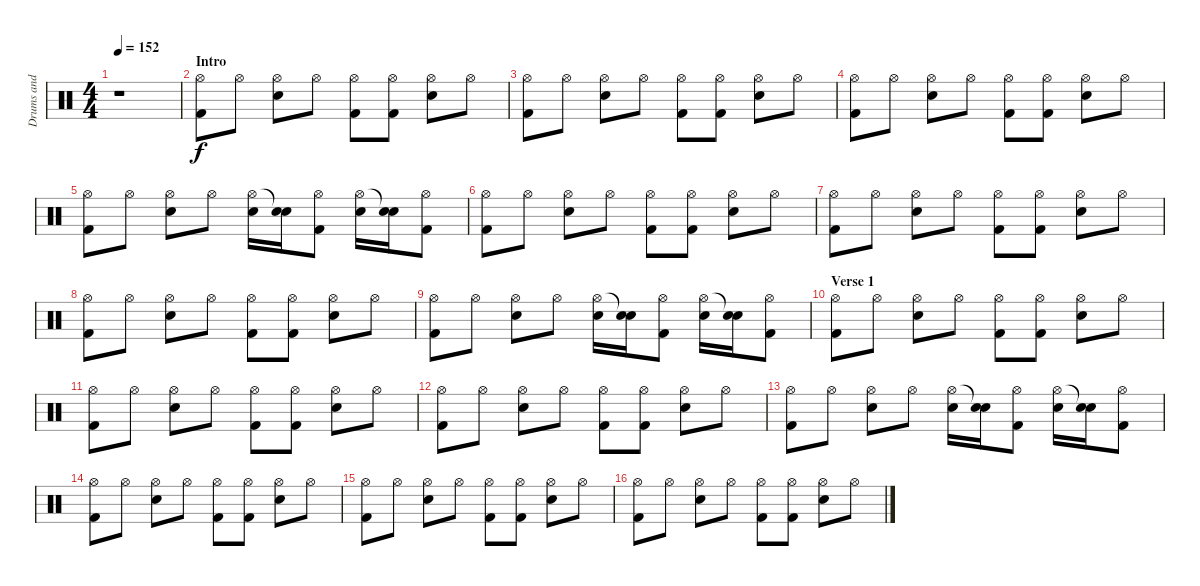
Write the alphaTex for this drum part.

\track ("Drums and Percussion" "Drums and ") {instrument percussion}
\staff {score}
\articulation defaults
\ts (4 4)
\tempo 152
\clef neutral
\ks c
r.1{dy f} |
\section ("" "Intro")
("Hi-Hat (open)" "Kick (hit) 2").8 "Hi-Hat (open)".8 ("Hi-Hat (open)" "Electric Snare (hit)").8 "Hi-Hat (open)".8 ("Hi-Hat (open)" "Kick (hit) 2").8 ("Hi-Hat (open)" "Kick (hit) 2").8 ("Hi-Hat (open)" "Electric Snare (hit)").8 "Hi-Hat (open)".8 |
("Hi-Hat (open)" "Kick (hit) 2").8 "Hi-Hat (open)".8 ("Hi-Hat (open)" "Electric Snare (hit)").8 "Hi-Hat (open)".8 ("Hi-Hat (open)" "Kick (hit) 2").8 ("Hi-Hat (open)" "Kick (hit) 2").8 ("Hi-Hat (open)" "Electric Snare (hit)").8 "Hi-Hat (open)".8 |
("Hi-Hat (open)" "Kick (hit) 2").8 "Hi-Hat (open)".8 ("Hi-Hat (open)" "Electric Snare (hit)").8 "Hi-Hat (open)".8 ("Hi-Hat (open)" "Kick (hit) 2").8 ("Hi-Hat (open)" "Kick (hit) 2").8 ("Hi-Hat (open)" "Electric Snare (hit)").8 "Hi-Hat (open)".8 |
("Hi-Hat (open)" "Kick (hit) 2").8 "Hi-Hat (open)".8 ("Hi-Hat (open)" "Electric Snare (hit)").8 "Hi-Hat (open)".8 ("Hi-Hat (open)" "Electric Snare (hit)").16 ("Snare (hit)"{t} "Electric Snare (hit)").16 ("Hi-Hat (open)" "Kick (hit) 2").8 ("Hi-Hat (open)" "Electric Snare (hit)").16 ("Snare (hit)"{t} "Electric Snare (hit)").16 ("Hi-Hat (open)" "Kick (hit) 2").8 |
("Hi-Hat (open)" "Kick (hit) 2").8 "Hi-Hat (open)".8 ("Hi-Hat (open)" "Electric Snare (hit)").8 "Hi-Hat (open)".8 ("Hi-Hat (open)" "Kick (hit) 2").8 ("Hi-Hat (open)" "Kick (hit) 2").8 ("Hi-Hat (open)" "Electric Snare (hit)").8 "Hi-Hat (open)".8 |
("Hi-Hat (open)" "Kick (hit) 2").8 "Hi-Hat (open)".8 ("Hi-Hat (open)" "Electric Snare (hit)").8 "Hi-Hat (open)".8 ("Hi-Hat (open)" "Kick (hit) 2").8 ("Hi-Hat (open)" "Kick (hit) 2").8 ("Hi-Hat (open)" "Electric Snare (hit)").8 "Hi-Hat (open)".8 |
("Hi-Hat (open)" "Kick (hit) 2").8 "Hi-Hat (open)".8 ("Hi-Hat (open)" "Electric Snare (hit)").8 "Hi-Hat (open)".8 ("Hi-Hat (open)" "Kick (hit) 2").8 ("Hi-Hat (open)" "Kick (hit) 2").8 ("Hi-Hat (open)" "Electric Snare (hit)").8 "Hi-Hat (open)".8 |
("Hi-Hat (open)" "Kick (hit) 2").8 "Hi-Hat (open)".8 ("Hi-Hat (open)" "Electric Snare (hit)").8 "Hi-Hat (open)".8 ("Hi-Hat (open)" "Electric Snare (hit)").16 ("Snare (hit)"{t} "Electric Snare (hit)").16 ("Hi-Hat (open)" "Kick (hit) 2").8 ("Hi-Hat (open)" "Electric Snare (hit)").16 ("Snare (hit)"{t} "Electric Snare (hit)").16 ("Hi-Hat (open)" "Kick (hit) 2").8 |
\section ("" "Verse 1")
("Hi-Hat (open)" "Kick (hit) 2").8 "Hi-Hat (open)".8 ("Hi-Hat (open)" "Electric Snare (hit)").8 "Hi-Hat (open)".8 ("Hi-Hat (open)" "Kick (hit) 2").8 ("Hi-Hat (open)" "Kick (hit) 2").8 ("Hi-Hat (open)" "Electric Snare (hit)").8 "Hi-Hat (open)".8 |
("Hi-Hat (open)" "Kick (hit) 2").8 "Hi-Hat (open)".8 ("Hi-Hat (open)" "Electric Snare (hit)").8 "Hi-Hat (open)".8 ("Hi-Hat (open)" "Kick (hit) 2").8 ("Hi-Hat (open)" "Kick (hit) 2").8 ("Hi-Hat (open)" "Electric Snare (hit)").8 "Hi-Hat (open)".8 |
("Hi-Hat (open)" "Kick (hit) 2").8 "Hi-Hat (open)".8 ("Hi-Hat (open)" "Electric Snare (hit)").8 "Hi-Hat (open)".8 ("Hi-Hat (open)" "Kick (hit) 2").8 ("Hi-Hat (open)" "Kick (hit) 2").8 ("Hi-Hat (open)" "Electric Snare (hit)").8 "Hi-Hat (open)".8 |
("Hi-Hat (open)" "Kick (hit) 2").8 "Hi-Hat (open)".8 ("Hi-Hat (open)" "Electric Snare (hit)").8 "Hi-Hat (open)".8 ("Hi-Hat (open)" "Electric Snare (hit)").16 ("Snare (hit)"{t} "Electric Snare (hit)").16 ("Hi-Hat (open)" "Kick (hit) 2").8 ("Hi-Hat (open)" "Electric Snare (hit)").16 ("Snare (hit)"{t} "Electric Snare (hit)").16 ("Hi-Hat (open)" "Kick (hit) 2").8 |
("Hi-Hat (open)" "Kick (hit) 2").8 "Hi-Hat (open)".8 ("Hi-Hat (open)" "Electric Snare (hit)").8 "Hi-Hat (open)".8 ("Hi-Hat (open)" "Kick (hit) 2").8 ("Hi-Hat (open)" "Kick (hit) 2").8 ("Hi-Hat (open)" "Electric Snare (hit)").8 "Hi-Hat (open)".8 |
("Hi-Hat (open)" "Kick (hit) 2").8 "Hi-Hat (open)".8 ("Hi-Hat (open)" "Electric Snare (hit)").8 "Hi-Hat (open)".8 ("Hi-Hat (open)" "Kick (hit) 2").8 ("Hi-Hat (open)" "Kick (hit) 2").8 ("Hi-Hat (open)" "Electric Snare (hit)").8 "Hi-Hat (open)".8 |
("Hi-Hat (open)" "Kick (hit) 2").8 "Hi-Hat (open)".8 ("Hi-Hat (open)" "Electric Snare (hit)").8 "Hi-Hat (open)".8 ("Hi-Hat (open)" "Kick (hit) 2").8 ("Hi-Hat (open)" "Kick (hit) 2").8 ("Hi-Hat (open)" "Electric Snare (hit)").8 "Hi-Hat (open)".8
